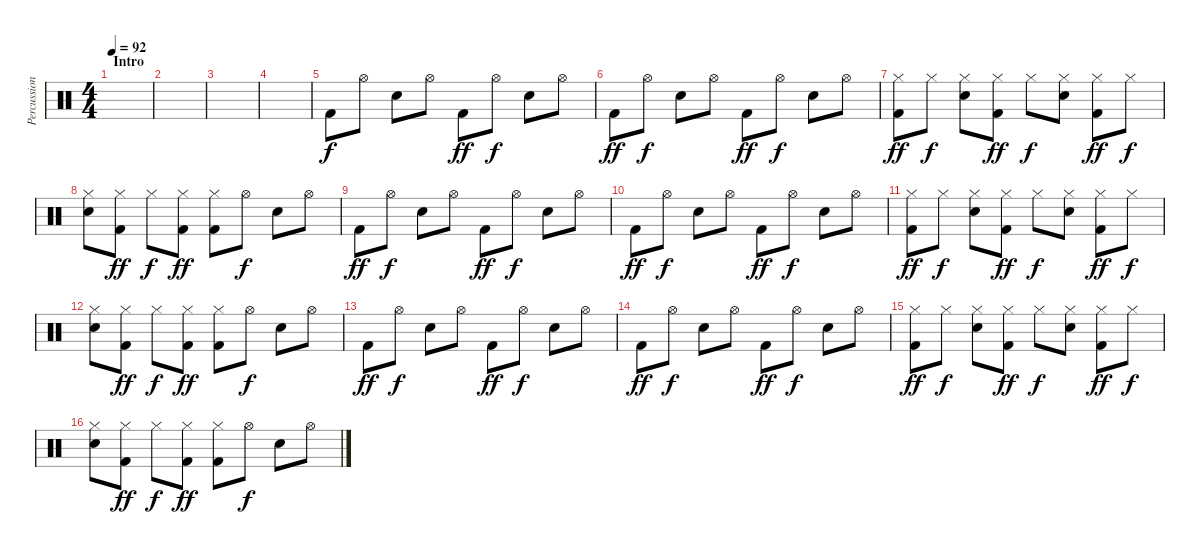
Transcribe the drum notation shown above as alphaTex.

\track ("Percussion" "Percussion") {instrument percussion}
\staff {score}
\articulation defaults
\ts (4 4)
\section ("" "Intro")
\tempo 92
\clef neutral
\ks c
|
|
|
|
"Kick (hit) 2".8 "Hi-Hat (open)".8{dy f} "Snare (hit) 2".8 "Hi-Hat (open)".8 "Kick (hit) 2".8{dy ff} "Hi-Hat (open)".8{dy f} "Snare (hit) 2".8 "Hi-Hat (open)".8 |
"Kick (hit) 2".8{dy ff} "Hi-Hat (open)".8{dy f} "Snare (hit) 2".8 "Hi-Hat (open)".8 "Kick (hit) 2".8{dy ff} "Hi-Hat (open)".8{dy f} "Snare (hit) 2".8 "Hi-Hat (open)".8 |
("Hi-Hat (closed)" "Kick (hit) 2").8{dy ff} "Hi-Hat (closed)".8{dy f} ("Hi-Hat (closed)" "Snare (hit) 2").8 ("Hi-Hat (closed)" "Kick (hit) 2").8{dy ff} "Hi-Hat (closed)".8{dy f} ("Hi-Hat (closed)" "Snare (hit) 2").8 ("Hi-Hat (closed)" "Kick (hit) 2").8{dy ff} "Hi-Hat (closed)".8{dy f} |
("Hi-Hat (closed)" "Snare (hit) 2").8 ("Hi-Hat (closed)" "Kick (hit) 2").8{dy ff} "Hi-Hat (closed)".8{dy f} ("Hi-Hat (closed)" "Kick (hit) 2").8{dy ff} ("Hi-Hat (closed)" "Kick (hit) 2").8 "Hi-Hat (open)".8{dy f} "Snare (hit) 2".8 "Hi-Hat (open)".8 |
"Kick (hit) 2".8{dy ff} "Hi-Hat (open)".8{dy f} "Snare (hit) 2".8 "Hi-Hat (open)".8 "Kick (hit) 2".8{dy ff} "Hi-Hat (open)".8{dy f} "Snare (hit) 2".8 "Hi-Hat (open)".8 |
"Kick (hit) 2".8{dy ff} "Hi-Hat (open)".8{dy f} "Snare (hit) 2".8 "Hi-Hat (open)".8 "Kick (hit) 2".8{dy ff} "Hi-Hat (open)".8{dy f} "Snare (hit) 2".8 "Hi-Hat (open)".8 |
("Hi-Hat (closed)" "Kick (hit) 2").8{dy ff} "Hi-Hat (closed)".8{dy f} ("Hi-Hat (closed)" "Snare (hit) 2").8 ("Hi-Hat (closed)" "Kick (hit) 2").8{dy ff} "Hi-Hat (closed)".8{dy f} ("Hi-Hat (closed)" "Snare (hit) 2").8 ("Hi-Hat (closed)" "Kick (hit) 2").8{dy ff} "Hi-Hat (closed)".8{dy f} |
("Hi-Hat (closed)" "Snare (hit) 2").8 ("Hi-Hat (closed)" "Kick (hit) 2").8{dy ff} "Hi-Hat (closed)".8{dy f} ("Hi-Hat (closed)" "Kick (hit) 2").8{dy ff} ("Hi-Hat (closed)" "Kick (hit) 2").8 "Hi-Hat (open)".8{dy f} "Snare (hit) 2".8 "Hi-Hat (open)".8 |
"Kick (hit) 2".8{dy ff} "Hi-Hat (open)".8{dy f} "Snare (hit) 2".8 "Hi-Hat (open)".8 "Kick (hit) 2".8{dy ff} "Hi-Hat (open)".8{dy f} "Snare (hit) 2".8 "Hi-Hat (open)".8 |
"Kick (hit) 2".8{dy ff} "Hi-Hat (open)".8{dy f} "Snare (hit) 2".8 "Hi-Hat (open)".8 "Kick (hit) 2".8{dy ff} "Hi-Hat (open)".8{dy f} "Snare (hit) 2".8 "Hi-Hat (open)".8 |
("Hi-Hat (closed)" "Kick (hit) 2").8{dy ff} "Hi-Hat (closed)".8{dy f} ("Hi-Hat (closed)" "Snare (hit) 2").8 ("Hi-Hat (closed)" "Kick (hit) 2").8{dy ff} "Hi-Hat (closed)".8{dy f} ("Hi-Hat (closed)" "Snare (hit) 2").8 ("Hi-Hat (closed)" "Kick (hit) 2").8{dy ff} "Hi-Hat (closed)".8{dy f} |
("Hi-Hat (closed)" "Snare (hit) 2").8 ("Hi-Hat (closed)" "Kick (hit) 2").8{dy ff} "Hi-Hat (closed)".8{dy f} ("Hi-Hat (closed)" "Kick (hit) 2").8{dy ff} ("Hi-Hat (closed)" "Kick (hit) 2").8 "Hi-Hat (open)".8{dy f} "Snare (hit) 2".8 "Hi-Hat (open)".8
